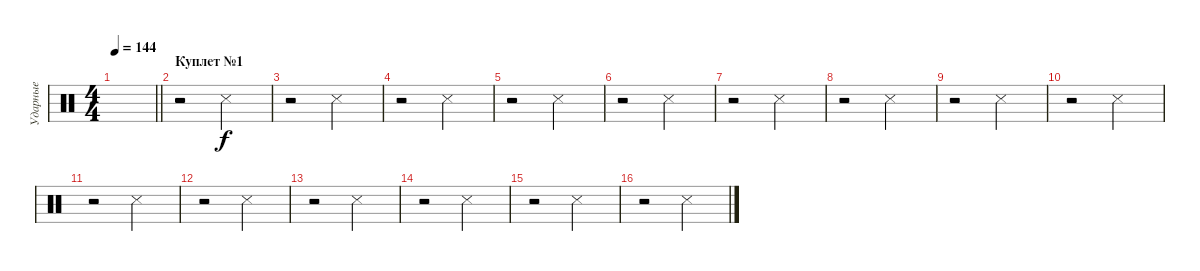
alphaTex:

\track ("Ударные" "Ударные") {instrument percussion}
\staff {score}
\articulation defaults
\ts (4 4)
\tempo 144
\clef neutral
\barLineRight lightlight
\ks c
|
\section ("" "Куплет №1")
r.2 "Snare (side stick) 3".2 |
r.2 "Snare (side stick) 3".2 |
r.2 "Snare (side stick) 3".2 |
r.2 "Snare (side stick) 3".2 |
r.2 "Snare (side stick) 3".2 |
r.2 "Snare (side stick) 3".2 |
r.2 "Snare (side stick) 3".2 |
r.2 "Snare (side stick) 3".2 |
r.2 "Snare (side stick) 3".2 |
r.2 "Snare (side stick) 3".2 |
r.2 "Snare (side stick) 3".2 |
r.2 "Snare (side stick) 3".2 |
r.2 "Snare (side stick) 3".2 |
r.2 "Snare (side stick) 3".2 |
r.2 "Snare (side stick) 3".2
